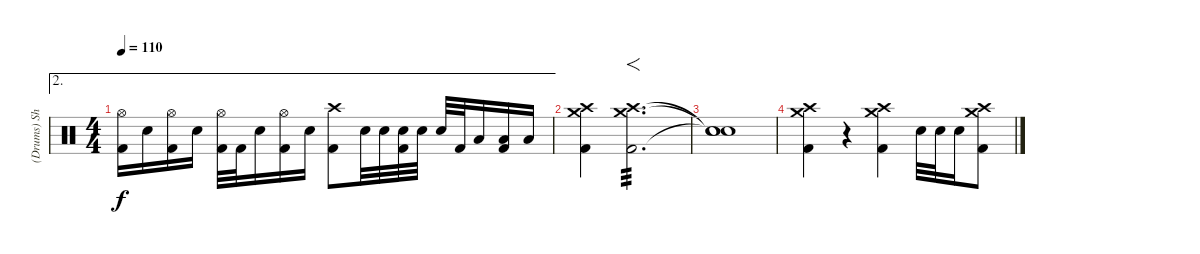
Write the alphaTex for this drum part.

\track ("(Drums) Shinya" "(Drums) Sh") {instrument percussion}
\staff {score}
\articulation defaults
\ae 2
\ts (4 4)
\tempo 110
\clef neutral
\ks c
("Hi-Hat (open)" "Kick (hit) 2").16{dy f} "Snare (hit) 2".16 ("Hi-Hat (open)" "Kick (hit) 2").16 "Snare (hit) 2".16 ("Hi-Hat (open)" "Kick (hit) 2").32 "Kick (hit) 2".32 "Snare (hit) 2".16 ("Hi-Hat (open)" "Kick (hit) 2").16 "Snare (hit) 2".16 ("Crash high (hit)" "Kick (hit) 2").8 "Snare (hit) 2".32 "Snare (hit) 2".32 ("Snare (hit) 2" "Kick (hit) 2").32 "Snare (hit) 2".32 "Snare (hit) 2".32 "Kick (hit) 2".32 "Low Tom (hit)".16 ("Low Tom (hit)" "Kick (hit) 2").16 "Low Floor Tom (hit)".16 |
("Crash medium (hit)" "Crash high (hit)" "Kick (hit) 2").4 ("Crash medium (hit)" "Crash high (hit)" "Kick (hit) 2").2{f d tp 3} |
("Snare (hit)"{t} "Snare (hit)"{t} "Snare (hit)"{t}).1 |
("Crash medium (hit)" "Crash high (hit)" "Kick (hit) 2").4 r.4 ("Crash medium (hit)" "Crash high (hit)" "Kick (hit) 2").4 "Snare (hit) 2".32 "Snare (hit) 2".32 "Snare (hit) 2".16 ("Crash medium (hit)" "Crash high (hit)" "Kick (hit) 2").8
